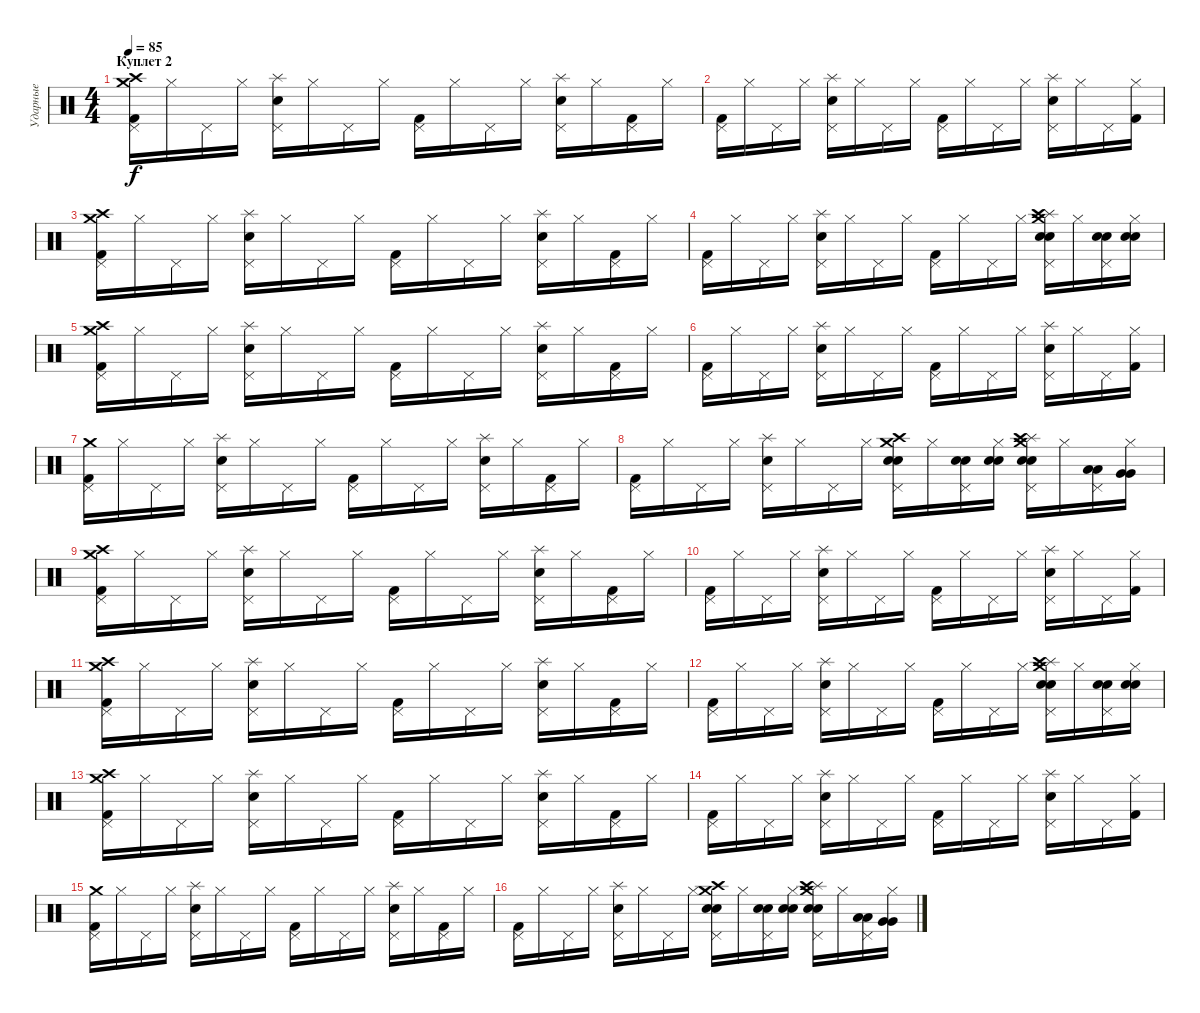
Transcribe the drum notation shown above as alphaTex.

\track ("Ударные" "Ударные") {instrument percussion}
\staff {score}
\articulation defaults
\ts (4 4)
\section ("" "Куплет 2")
\tempo 85
\clef neutral
\ks c
("Kick (hit) 2" "Pedal Hi-Hat (hit)" "Crash high (hit)" "Crash medium (hit)").16{dy f} "Hi-Hat (closed)".16 "Pedal Hi-Hat (hit)".16 "Hi-Hat (closed)".16 ("Snare (hit) 2" "Pedal Hi-Hat (hit)" "Splash (hit)").16 "Hi-Hat (closed)".16 "Pedal Hi-Hat (hit)".16 "Hi-Hat (closed)".16 ("Kick (hit) 2" "Pedal Hi-Hat (hit)").16 "Hi-Hat (closed)".16 "Pedal Hi-Hat (hit)".16 "Hi-Hat (closed)".16 ("Snare (hit) 2" "Pedal Hi-Hat (hit)" "Splash (hit)").16 "Hi-Hat (closed)".16 ("Kick (hit) 2" "Pedal Hi-Hat (hit)").16 "Hi-Hat (closed)".16 |
("Kick (hit) 2" "Pedal Hi-Hat (hit)").16 "Hi-Hat (closed)".16 "Pedal Hi-Hat (hit)".16 "Hi-Hat (closed)".16 ("Snare (hit) 2" "Pedal Hi-Hat (hit)" "Splash (hit)").16 "Hi-Hat (closed)".16 "Pedal Hi-Hat (hit)".16 "Hi-Hat (closed)".16 ("Kick (hit) 2" "Pedal Hi-Hat (hit)").16 "Hi-Hat (closed)".16 "Pedal Hi-Hat (hit)".16 "Hi-Hat (closed)".16 ("Snare (hit) 2" "Pedal Hi-Hat (hit)" "Splash (hit)").16 "Hi-Hat (closed)".16 "Pedal Hi-Hat (hit)".16 ("Kick (hit) 2" "Hi-Hat (closed)").16 |
("Kick (hit) 2" "Pedal Hi-Hat (hit)" "Crash medium (hit)" "Crash high (hit)").16 "Hi-Hat (closed)".16 "Pedal Hi-Hat (hit)".16 "Hi-Hat (closed)".16 ("Snare (hit) 2" "Pedal Hi-Hat (hit)" "Splash (hit)").16 "Hi-Hat (closed)".16 "Pedal Hi-Hat (hit)".16 "Hi-Hat (closed)".16 ("Kick (hit) 2" "Pedal Hi-Hat (hit)").16 "Hi-Hat (closed)".16 "Pedal Hi-Hat (hit)".16 "Hi-Hat (closed)".16 ("Snare (hit) 2" "Pedal Hi-Hat (hit)" "Splash (hit)").16 "Hi-Hat (closed)".16 ("Kick (hit) 2" "Pedal Hi-Hat (hit)").16 "Hi-Hat (closed)".16 |
("Kick (hit) 2" "Pedal Hi-Hat (hit)").16 "Hi-Hat (closed)".16 "Pedal Hi-Hat (hit)".16 "Hi-Hat (closed)".16 ("Snare (hit) 2" "Pedal Hi-Hat (hit)" "Splash (hit)").16 "Hi-Hat (closed)".16 "Pedal Hi-Hat (hit)".16 "Hi-Hat (closed)".16 ("Kick (hit) 2" "Pedal Hi-Hat (hit)").16 "Hi-Hat (closed)".16 "Pedal Hi-Hat (hit)".16 "Hi-Hat (closed)".16 ("Snare (hit) 2" "Snare (hit) 2" "Pedal Hi-Hat (hit)" "Splash (hit)" "Crash medium (hit)" "Crash high (hit)").16 "Hi-Hat (closed)".16 ("Snare (hit) 2" "Snare (hit) 2" "Pedal Hi-Hat (hit)").16 ("Snare (hit) 2" "Snare (hit) 2" "Hi-Hat (closed)").16 |
("Kick (hit) 2" "Pedal Hi-Hat (hit)" "Crash medium (hit)" "Crash high (hit)").16 "Hi-Hat (closed)".16 "Pedal Hi-Hat (hit)".16 "Hi-Hat (closed)".16 ("Snare (hit) 2" "Pedal Hi-Hat (hit)" "Splash (hit)").16 "Hi-Hat (closed)".16 "Pedal Hi-Hat (hit)".16 "Hi-Hat (closed)".16 ("Kick (hit) 2" "Pedal Hi-Hat (hit)").16 "Hi-Hat (closed)".16 "Pedal Hi-Hat (hit)".16 "Hi-Hat (closed)".16 ("Snare (hit) 2" "Pedal Hi-Hat (hit)" "Splash (hit)").16 "Hi-Hat (closed)".16 ("Kick (hit) 2" "Pedal Hi-Hat (hit)").16 "Hi-Hat (closed)".16 |
("Kick (hit) 2" "Pedal Hi-Hat (hit)").16 "Hi-Hat (closed)".16 "Pedal Hi-Hat (hit)".16 "Hi-Hat (closed)".16 ("Snare (hit) 2" "Pedal Hi-Hat (hit)" "Splash (hit)").16 "Hi-Hat (closed)".16 "Pedal Hi-Hat (hit)".16 "Hi-Hat (closed)".16 ("Kick (hit) 2" "Pedal Hi-Hat (hit)").16 "Hi-Hat (closed)".16 "Pedal Hi-Hat (hit)".16 "Hi-Hat (closed)".16 ("Snare (hit) 2" "Pedal Hi-Hat (hit)" "Splash (hit)").16 "Hi-Hat (closed)".16 "Pedal Hi-Hat (hit)".16 ("Kick (hit) 2" "Hi-Hat (closed)").16 |
("Kick (hit) 2" "Pedal Hi-Hat (hit)" "Crash medium (hit)").16 "Hi-Hat (closed)".16 "Pedal Hi-Hat (hit)".16 "Hi-Hat (closed)".16 ("Snare (hit) 2" "Pedal Hi-Hat (hit)" "Splash (hit)").16 "Hi-Hat (closed)".16 "Pedal Hi-Hat (hit)".16 "Hi-Hat (closed)".16 ("Kick (hit) 2" "Pedal Hi-Hat (hit)").16 "Hi-Hat (closed)".16 "Pedal Hi-Hat (hit)".16 "Hi-Hat (closed)".16 ("Snare (hit) 2" "Pedal Hi-Hat (hit)" "Splash (hit)").16 "Hi-Hat (closed)".16 ("Kick (hit) 2" "Pedal Hi-Hat (hit)").16 "Hi-Hat (closed)".16 |
("Kick (hit) 2" "Pedal Hi-Hat (hit)").16 "Hi-Hat (closed)".16 "Pedal Hi-Hat (hit)".16 "Hi-Hat (closed)".16 ("Snare (hit) 2" "Pedal Hi-Hat (hit)" "Splash (hit)").16 "Hi-Hat (closed)".16 "Pedal Hi-Hat (hit)".16 "Hi-Hat (closed)".16 ("Snare (hit) 2" "Snare (hit) 2" "Pedal Hi-Hat (hit)" "Crash medium (hit)" "Crash high (hit)").16 "Hi-Hat (closed)".16 ("Snare (hit) 2" "Snare (hit) 2" "Pedal Hi-Hat (hit)").16 ("Snare (hit) 2" "Snare (hit) 2" "Hi-Hat (closed)").16 ("Snare (hit) 2" "Snare (hit) 2" "Pedal Hi-Hat (hit)" "Splash (hit)" "Crash medium (hit)" "Crash high (hit)").16 "Hi-Hat (closed)".16 ("Low Tom (hit)" "Low Tom (hit)" "Pedal Hi-Hat (hit)").16 ("Very Low Tom (hit)" "Very Low Tom (hit)" "Hi-Hat (closed)").16 |
("Kick (hit) 2" "Pedal Hi-Hat (hit)" "Crash high (hit)" "Crash medium (hit)").16 "Hi-Hat (closed)".16 "Pedal Hi-Hat (hit)".16 "Hi-Hat (closed)".16 ("Snare (hit) 2" "Pedal Hi-Hat (hit)" "Splash (hit)").16 "Hi-Hat (closed)".16 "Pedal Hi-Hat (hit)".16 "Hi-Hat (closed)".16 ("Kick (hit) 2" "Pedal Hi-Hat (hit)").16 "Hi-Hat (closed)".16 "Pedal Hi-Hat (hit)".16 "Hi-Hat (closed)".16 ("Snare (hit) 2" "Pedal Hi-Hat (hit)" "Splash (hit)").16 "Hi-Hat (closed)".16 ("Kick (hit) 2" "Pedal Hi-Hat (hit)").16 "Hi-Hat (closed)".16 |
("Kick (hit) 2" "Pedal Hi-Hat (hit)").16 "Hi-Hat (closed)".16 "Pedal Hi-Hat (hit)".16 "Hi-Hat (closed)".16 ("Snare (hit) 2" "Pedal Hi-Hat (hit)" "Splash (hit)").16 "Hi-Hat (closed)".16 "Pedal Hi-Hat (hit)".16 "Hi-Hat (closed)".16 ("Kick (hit) 2" "Pedal Hi-Hat (hit)").16 "Hi-Hat (closed)".16 "Pedal Hi-Hat (hit)".16 "Hi-Hat (closed)".16 ("Snare (hit) 2" "Pedal Hi-Hat (hit)" "Splash (hit)").16 "Hi-Hat (closed)".16 "Pedal Hi-Hat (hit)".16 ("Kick (hit) 2" "Hi-Hat (closed)").16 |
("Kick (hit) 2" "Pedal Hi-Hat (hit)" "Crash medium (hit)" "Crash high (hit)").16 "Hi-Hat (closed)".16 "Pedal Hi-Hat (hit)".16 "Hi-Hat (closed)".16 ("Snare (hit) 2" "Pedal Hi-Hat (hit)" "Splash (hit)").16 "Hi-Hat (closed)".16 "Pedal Hi-Hat (hit)".16 "Hi-Hat (closed)".16 ("Kick (hit) 2" "Pedal Hi-Hat (hit)").16 "Hi-Hat (closed)".16 "Pedal Hi-Hat (hit)".16 "Hi-Hat (closed)".16 ("Snare (hit) 2" "Pedal Hi-Hat (hit)" "Splash (hit)").16 "Hi-Hat (closed)".16 ("Kick (hit) 2" "Pedal Hi-Hat (hit)").16 "Hi-Hat (closed)".16 |
("Kick (hit) 2" "Pedal Hi-Hat (hit)").16 "Hi-Hat (closed)".16 "Pedal Hi-Hat (hit)".16 "Hi-Hat (closed)".16 ("Snare (hit) 2" "Pedal Hi-Hat (hit)" "Splash (hit)").16 "Hi-Hat (closed)".16 "Pedal Hi-Hat (hit)".16 "Hi-Hat (closed)".16 ("Kick (hit) 2" "Pedal Hi-Hat (hit)").16 "Hi-Hat (closed)".16 "Pedal Hi-Hat (hit)".16 "Hi-Hat (closed)".16 ("Snare (hit) 2" "Snare (hit) 2" "Pedal Hi-Hat (hit)" "Splash (hit)" "Crash medium (hit)" "Crash high (hit)").16 "Hi-Hat (closed)".16 ("Snare (hit) 2" "Snare (hit) 2" "Pedal Hi-Hat (hit)").16 ("Snare (hit) 2" "Snare (hit) 2" "Hi-Hat (closed)").16 |
("Kick (hit) 2" "Pedal Hi-Hat (hit)" "Crash medium (hit)" "Crash high (hit)").16 "Hi-Hat (closed)".16 "Pedal Hi-Hat (hit)".16 "Hi-Hat (closed)".16 ("Snare (hit) 2" "Pedal Hi-Hat (hit)" "Splash (hit)").16 "Hi-Hat (closed)".16 "Pedal Hi-Hat (hit)".16 "Hi-Hat (closed)".16 ("Kick (hit) 2" "Pedal Hi-Hat (hit)").16 "Hi-Hat (closed)".16 "Pedal Hi-Hat (hit)".16 "Hi-Hat (closed)".16 ("Snare (hit) 2" "Pedal Hi-Hat (hit)" "Splash (hit)").16 "Hi-Hat (closed)".16 ("Kick (hit) 2" "Pedal Hi-Hat (hit)").16 "Hi-Hat (closed)".16 |
("Kick (hit) 2" "Pedal Hi-Hat (hit)").16 "Hi-Hat (closed)".16 "Pedal Hi-Hat (hit)".16 "Hi-Hat (closed)".16 ("Snare (hit) 2" "Pedal Hi-Hat (hit)" "Splash (hit)").16 "Hi-Hat (closed)".16 "Pedal Hi-Hat (hit)".16 "Hi-Hat (closed)".16 ("Kick (hit) 2" "Pedal Hi-Hat (hit)").16 "Hi-Hat (closed)".16 "Pedal Hi-Hat (hit)".16 "Hi-Hat (closed)".16 ("Snare (hit) 2" "Pedal Hi-Hat (hit)" "Splash (hit)").16 "Hi-Hat (closed)".16 "Pedal Hi-Hat (hit)".16 ("Kick (hit) 2" "Hi-Hat (closed)").16 |
("Kick (hit) 2" "Pedal Hi-Hat (hit)" "Crash medium (hit)").16 "Hi-Hat (closed)".16 "Pedal Hi-Hat (hit)".16 "Hi-Hat (closed)".16 ("Snare (hit) 2" "Pedal Hi-Hat (hit)" "Splash (hit)").16 "Hi-Hat (closed)".16 "Pedal Hi-Hat (hit)".16 "Hi-Hat (closed)".16 ("Kick (hit) 2" "Pedal Hi-Hat (hit)").16 "Hi-Hat (closed)".16 "Pedal Hi-Hat (hit)".16 "Hi-Hat (closed)".16 ("Snare (hit) 2" "Pedal Hi-Hat (hit)" "Splash (hit)").16 "Hi-Hat (closed)".16 ("Kick (hit) 2" "Pedal Hi-Hat (hit)").16 "Hi-Hat (closed)".16 |
("Kick (hit) 2" "Pedal Hi-Hat (hit)").16 "Hi-Hat (closed)".16 "Pedal Hi-Hat (hit)".16 "Hi-Hat (closed)".16 ("Snare (hit) 2" "Pedal Hi-Hat (hit)" "Splash (hit)").16 "Hi-Hat (closed)".16 "Pedal Hi-Hat (hit)".16 "Hi-Hat (closed)".16 ("Snare (hit) 2" "Snare (hit) 2" "Pedal Hi-Hat (hit)" "Crash medium (hit)" "Crash high (hit)").16 "Hi-Hat (closed)".16 ("Snare (hit) 2" "Snare (hit) 2" "Pedal Hi-Hat (hit)").16 ("Snare (hit) 2" "Snare (hit) 2" "Hi-Hat (closed)").16 ("Snare (hit) 2" "Snare (hit) 2" "Pedal Hi-Hat (hit)" "Splash (hit)" "Crash medium (hit)" "Crash high (hit)").16 "Hi-Hat (closed)".16 ("Low Tom (hit)" "Low Tom (hit)" "Pedal Hi-Hat (hit)").16 ("Very Low Tom (hit)" "Very Low Tom (hit)" "Hi-Hat (closed)").16
